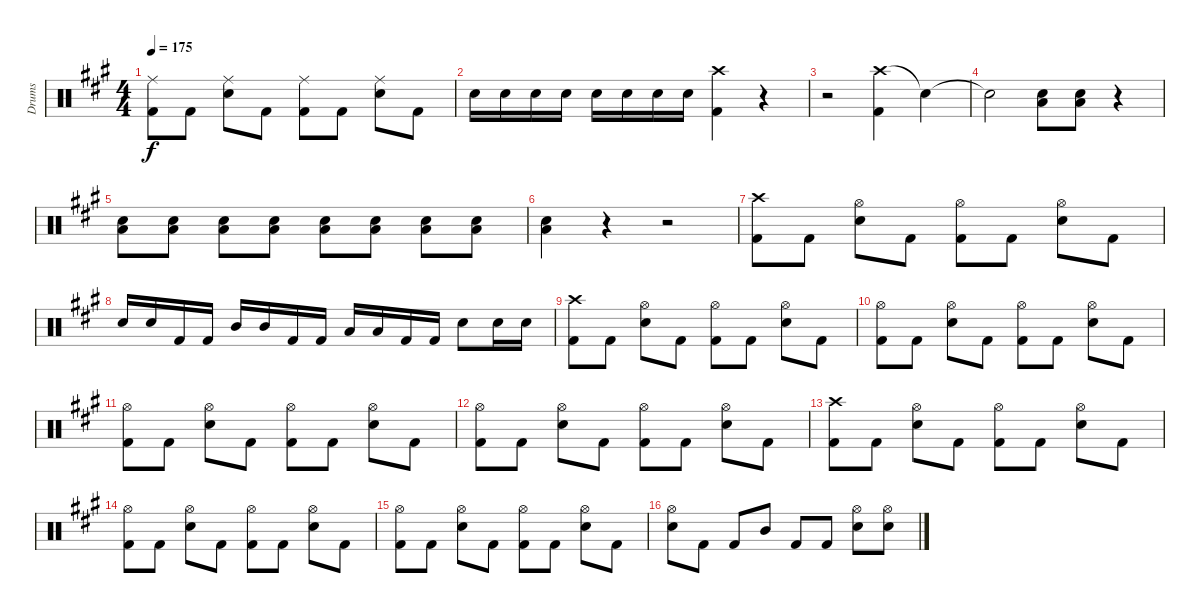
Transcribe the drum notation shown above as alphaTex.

\track ("Drums" "Drums") {instrument percussion}
\staff {score}
\articulation defaults
\ts (4 4)
\tempo 175
\clef neutral
\ks a
("Ride (middle)" "Kick (hit) 2").8{dy f} "Kick (hit) 2".8 ("Ride (middle)" "Snare (hit) 2").8 "Kick (hit) 2".8 ("Ride (middle)" "Kick (hit) 2").8 "Kick (hit) 2".8 ("Ride (middle)" "Snare (hit) 2").8 "Kick (hit) 2".8 |
"Snare (hit) 2".16 "Snare (hit) 2".16 "Snare (hit) 2".16 "Snare (hit) 2".16 "Snare (hit) 2".16 "Snare (hit) 2".16 "Snare (hit) 2".16 "Snare (hit) 2".16 ("Crash high (hit)" "Kick (hit) 2").4 r.4 |
r.2 ("Crash high (hit)" "Kick (hit) 2").4 "Snare (hit)"{t}.4 |
"Snare (hit)"{t}.2 ("Snare (hit) 2" "Low Floor Tom (hit)").8 ("Snare (hit) 2" "Low Floor Tom (hit)").8 r.4 |
("Snare (hit) 2" "Low Floor Tom (hit)").8 ("Snare (hit) 2" "Low Floor Tom (hit)").8 ("Snare (hit) 2" "Low Floor Tom (hit)").8 ("Snare (hit) 2" "Low Floor Tom (hit)").8 ("Snare (hit) 2" "Low Floor Tom (hit)").8 ("Snare (hit) 2" "Low Floor Tom (hit)").8 ("Snare (hit) 2" "Low Floor Tom (hit)").8 ("Snare (hit) 2" "Low Floor Tom (hit)").8 |
("Snare (hit) 2" "Low Floor Tom (hit)").4 r.4 r.2 |
("Crash high (hit)" "Kick (hit) 2").8 "Kick (hit) 2".8 ("Hi-Hat (open)" "Snare (hit) 2").8 "Kick (hit) 2".8 ("Hi-Hat (open)" "Kick (hit) 2").8 "Kick (hit) 2".8 ("Hi-Hat (open)" "Snare (hit) 2").8 "Kick (hit) 2".8 |
"Snare (hit) 2".16 "Snare (hit) 2".16 "Kick (hit) 2".16 "Kick (hit) 2".16 "Mid Tom (hit)".16 "Mid Tom (hit)".16 "Kick (hit) 2".16 "Kick (hit) 2".16 "Low Tom (hit)".16 "Low Tom (hit)".16 "Kick (hit) 2".16 "Kick (hit) 2".16 "Snare (hit) 2".8 "Snare (hit) 2".16 "Snare (hit) 2".16 |
("Crash high (hit)" "Kick (hit) 2").8 "Kick (hit) 2".8 ("Hi-Hat (open)" "Snare (hit) 2").8 "Kick (hit) 2".8 ("Hi-Hat (open)" "Kick (hit) 2").8 "Kick (hit) 2".8 ("Hi-Hat (open)" "Snare (hit) 2").8 "Kick (hit) 2".8 |
("Hi-Hat (open)" "Kick (hit) 2").8 "Kick (hit) 2".8 ("Hi-Hat (open)" "Snare (hit) 2").8 "Kick (hit) 2".8 ("Hi-Hat (open)" "Kick (hit) 2").8 "Kick (hit) 2".8 ("Hi-Hat (open)" "Snare (hit) 2").8 "Kick (hit) 2".8 |
("Hi-Hat (open)" "Kick (hit) 2").8 "Kick (hit) 2".8 ("Hi-Hat (open)" "Snare (hit) 2").8 "Kick (hit) 2".8 ("Hi-Hat (open)" "Kick (hit) 2").8 "Kick (hit) 2".8 ("Hi-Hat (open)" "Snare (hit) 2").8 "Kick (hit) 2".8 |
("Hi-Hat (open)" "Kick (hit) 2").8 "Kick (hit) 2".8 ("Hi-Hat (open)" "Snare (hit) 2").8 "Kick (hit) 2".8 ("Hi-Hat (open)" "Kick (hit) 2").8 "Kick (hit) 2".8 ("Hi-Hat (open)" "Snare (hit) 2").8 "Kick (hit) 2".8 |
("Crash high (hit)" "Kick (hit) 2").8 "Kick (hit) 2".8 ("Hi-Hat (open)" "Snare (hit) 2").8 "Kick (hit) 2".8 ("Hi-Hat (open)" "Kick (hit) 2").8 "Kick (hit) 2".8 ("Hi-Hat (open)" "Snare (hit) 2").8 "Kick (hit) 2".8 |
("Hi-Hat (open)" "Kick (hit) 2").8 "Kick (hit) 2".8 ("Hi-Hat (open)" "Snare (hit) 2").8 "Kick (hit) 2".8 ("Hi-Hat (open)" "Kick (hit) 2").8 "Kick (hit) 2".8 ("Hi-Hat (open)" "Snare (hit) 2").8 "Kick (hit) 2".8 |
("Hi-Hat (open)" "Kick (hit) 2").8 "Kick (hit) 2".8 ("Hi-Hat (open)" "Snare (hit) 2").8 "Kick (hit) 2".8 ("Hi-Hat (open)" "Kick (hit) 2").8 "Kick (hit) 2".8 ("Hi-Hat (open)" "Snare (hit) 2").8 "Kick (hit) 2".8 |
("Hi-Hat (open)" "Snare (hit) 2").8 "Kick (hit) 2".8 "Kick (hit) 2".8 "Mid Tom (hit)".8 "Kick (hit) 2".8 "Kick (hit) 2".8 ("Hi-Hat (open)" "Snare (hit) 2").8 ("Hi-Hat (open)" "Snare (hit) 2").8
